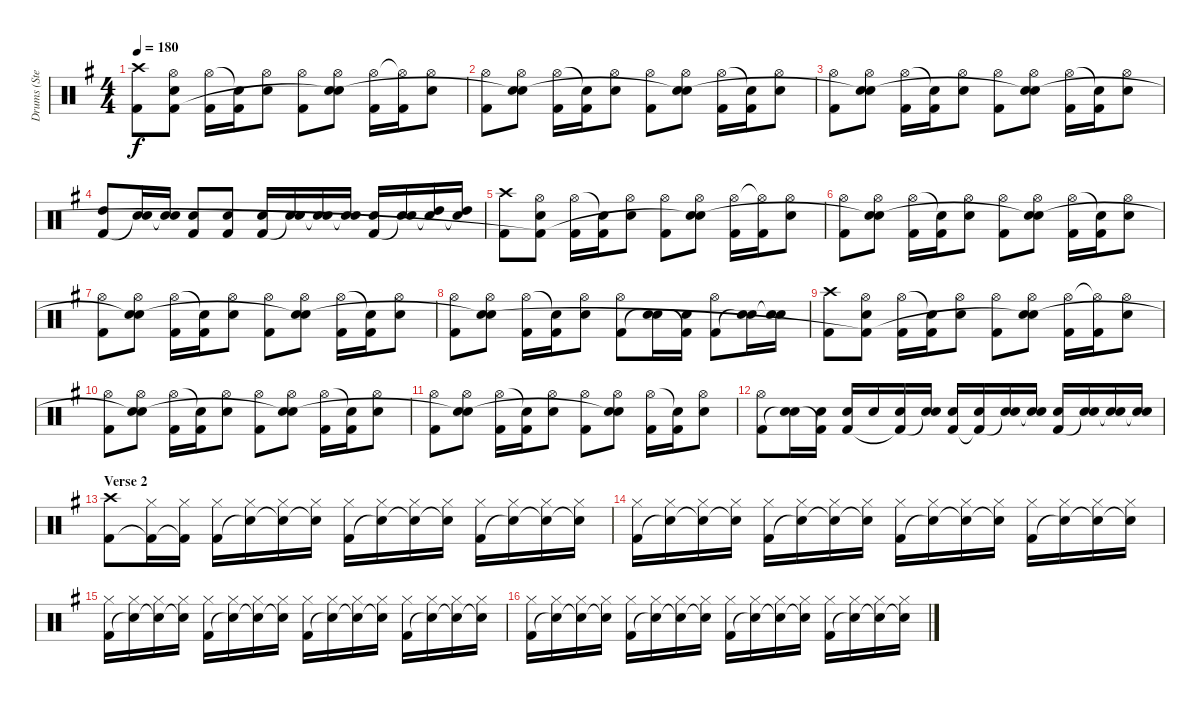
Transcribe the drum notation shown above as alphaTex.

\track ("Drums (Stevo)" "Drums (Ste") {instrument percussion}
\staff {score}
\articulation defaults
\ts (4 4)
\tempo 180
\clef neutral
\ks g
("Crash high (hit)" "Kick (hit) 2").8{dy f} ("Hi-Hat (open)" "Snare (hit) 2" "Kick (hit) 2"{t}).8 ("Hi-Hat (open)" "Kick (hit) 2").16 ("Snare (hit)"{t} "Kick (hit) 2").16 ("Hi-Hat (open)" "Snare (hit) 2").8 ("Hi-Hat (open)" "Kick (hit) 2").8 ("Hi-Hat (open)" "Snare (hit) 2" "Snare (hit)"{t}).8 ("Hi-Hat (open)" "Kick (hit) 2").16 ("Hi-Hat (open)"{t} "Kick (hit) 2").16 ("Hi-Hat (open)" "Snare (hit) 2").8 |
("Hi-Hat (open)" "Kick (hit) 2").8 ("Hi-Hat (open)" "Snare (hit) 2" "Snare (hit)"{t}).8 ("Hi-Hat (open)" "Kick (hit) 2").16 ("Snare (hit)"{t} "Kick (hit) 2").16 ("Hi-Hat (open)" "Snare (hit) 2").8 ("Hi-Hat (open)" "Kick (hit) 2").8 ("Hi-Hat (open)" "Snare (hit) 2" "Snare (hit)"{t}).8 ("Hi-Hat (open)" "Kick (hit) 2").16 ("Snare (hit)"{t} "Kick (hit) 2").16 ("Hi-Hat (open)" "Snare (hit) 2").8 |
("Hi-Hat (open)" "Kick (hit) 2").8 ("Hi-Hat (open)" "Snare (hit) 2" "Snare (hit)"{t}).8 ("Hi-Hat (open)" "Kick (hit) 2").16 ("Snare (hit)"{t} "Kick (hit) 2").16 ("Hi-Hat (open)" "Snare (hit) 2").8 ("Hi-Hat (open)" "Kick (hit) 2").8 ("Hi-Hat (open)" "Snare (hit) 2" "Snare (hit)"{t}).8 ("Hi-Hat (open)" "Kick (hit) 2").16 ("Snare (hit)"{t} "Kick (hit) 2").16 ("Hi-Hat (open)" "Snare (hit) 2").8 |
("High Tom (hit)" "Kick (hit) 2").8 ("Snare (hit) 2" "Snare (hit)"{t}).16 ("Snare (hit) 2" "Snare (hit)"{t}).16 ("Snare (hit) 2" "Kick (hit) 2").8 ("Snare (hit) 2" "Kick (hit) 2").8 ("Snare (hit) 2" "Kick (hit) 2").16 ("Snare (hit) 2" "Snare (hit)"{t}).16 ("Snare (hit) 2" "Snare (hit)"{t}).16 ("Snare (hit) 2" "Snare (hit)"{t}).16 ("Snare (hit) 2" "Kick (hit) 2").16 ("Snare (hit) 2" "Snare (hit)"{t}).16 ("High Tom (hit)" "Snare (hit)"{t}).16 ("High Tom (hit)" "Snare (hit)"{t}).16 |
("Crash high (hit)" "Kick (hit) 2").8 ("Hi-Hat (open)" "Snare (hit) 2" "Kick (hit) 2"{t}).8 ("Hi-Hat (open)" "Kick (hit) 2").16 ("Snare (hit)"{t} "Kick (hit) 2").16 ("Hi-Hat (open)" "Snare (hit) 2").8 ("Hi-Hat (open)" "Kick (hit) 2").8 ("Hi-Hat (open)" "Snare (hit) 2" "Snare (hit)"{t}).8 ("Hi-Hat (open)" "Kick (hit) 2").16 ("Hi-Hat (open)"{t} "Kick (hit) 2").16 ("Hi-Hat (open)" "Snare (hit) 2").8 |
("Hi-Hat (open)" "Kick (hit) 2").8 ("Hi-Hat (open)" "Snare (hit) 2" "Snare (hit)"{t}).8 ("Hi-Hat (open)" "Kick (hit) 2").16 ("Snare (hit)"{t} "Kick (hit) 2").16 ("Hi-Hat (open)" "Snare (hit) 2").8 ("Hi-Hat (open)" "Kick (hit) 2").8 ("Hi-Hat (open)" "Snare (hit) 2" "Snare (hit)"{t}).8 ("Hi-Hat (open)" "Kick (hit) 2").16 ("Snare (hit)"{t} "Kick (hit) 2").16 ("Hi-Hat (open)" "Snare (hit) 2").8 |
("Hi-Hat (open)" "Kick (hit) 2").8 ("Hi-Hat (open)" "Snare (hit) 2" "Snare (hit)"{t}).8 ("Hi-Hat (open)" "Kick (hit) 2").16 ("Snare (hit)"{t} "Kick (hit) 2").16 ("Hi-Hat (open)" "Snare (hit) 2").8 ("Hi-Hat (open)" "Kick (hit) 2").8 ("Hi-Hat (open)" "Snare (hit) 2" "Snare (hit)"{t}).8 ("Hi-Hat (open)" "Kick (hit) 2").16 ("Snare (hit)"{t} "Kick (hit) 2").16 ("Hi-Hat (open)" "Snare (hit) 2").8 |
("Hi-Hat (open)" "Kick (hit) 2").8 ("Hi-Hat (open)" "Snare (hit) 2" "Snare (hit)"{t}).8 ("Hi-Hat (open)" "Kick (hit) 2").16 ("Snare (hit)"{t} "Kick (hit) 2").16 ("Hi-Hat (open)" "Snare (hit) 2").8 ("Hi-Hat (open)" "Kick (hit) 2").8 ("Snare (hit) 2" "Snare (hit)"{t}).16 ("Snare (hit) 2" "Kick (hit) 2"{t}).16 ("Hi-Hat (open)" "Kick (hit) 2").8 ("Snare (hit) 2" "Snare (hit)"{t}).16 ("Snare (hit) 2" "Snare (hit)"{t}).16 |
("Crash high (hit)" "Kick (hit) 2").8 ("Hi-Hat (open)" "Snare (hit) 2" "Kick (hit) 2"{t}).8 ("Hi-Hat (open)" "Kick (hit) 2").16 ("Snare (hit)"{t} "Kick (hit) 2").16 ("Hi-Hat (open)" "Snare (hit) 2").8 ("Hi-Hat (open)" "Kick (hit) 2").8 ("Hi-Hat (open)" "Snare (hit) 2" "Snare (hit)"{t}).8 ("Hi-Hat (open)" "Kick (hit) 2").16 ("Hi-Hat (open)"{t} "Kick (hit) 2").16 ("Hi-Hat (open)" "Snare (hit) 2").8 |
("Hi-Hat (open)" "Kick (hit) 2").8 ("Hi-Hat (open)" "Snare (hit) 2" "Snare (hit)"{t}).8 ("Hi-Hat (open)" "Kick (hit) 2").16 ("Snare (hit)"{t} "Kick (hit) 2").16 ("Hi-Hat (open)" "Snare (hit) 2").8 ("Hi-Hat (open)" "Kick (hit) 2").8 ("Hi-Hat (open)" "Snare (hit) 2" "Snare (hit)"{t}).8 ("Hi-Hat (open)" "Kick (hit) 2").16 ("Snare (hit)"{t} "Kick (hit) 2").16 ("Hi-Hat (open)" "Snare (hit) 2").8 |
("Hi-Hat (open)" "Kick (hit) 2").8 ("Hi-Hat (open)" "Snare (hit) 2" "Snare (hit)"{t}).8 ("Hi-Hat (open)" "Kick (hit) 2").16 ("Snare (hit)"{t} "Kick (hit) 2").16 ("Hi-Hat (open)" "Snare (hit) 2").8 ("Hi-Hat (open)" "Kick (hit) 2").8 ("Hi-Hat (open)" "Snare (hit) 2" "Snare (hit)"{t}).8 ("Hi-Hat (open)" "Kick (hit) 2").16 ("Snare (hit)"{t} "Kick (hit) 2").16 ("Hi-Hat (open)" "Snare (hit) 2").8 |
("Hi-Hat (open)" "Kick (hit) 2").8 ("Snare (hit) 2" "Snare (hit)"{t}).16 ("Snare (hit) 2" "Kick (hit) 2"{t}).16 ("Snare (hit) 2" "Kick (hit) 2").16 "Snare (hit) 2".16 ("Snare (hit) 2" "Kick (hit) 2"{t}).16 ("Snare (hit) 2" "Snare (hit)"{t}).16 ("Snare (hit) 2" "Kick (hit) 2").16 ("Snare (hit) 2" "Kick (hit) 2"{t}).16 ("Snare (hit) 2" "Snare (hit)"{t}).16 ("Snare (hit) 2" "Snare (hit)"{t}).16 ("Snare (hit) 2" "Kick (hit) 2").16 ("Snare (hit) 2" "Snare (hit)"{t}).16 ("Snare (hit) 2" "Snare (hit)"{t}).16 ("Snare (hit) 2" "Snare (hit)"{t}).16 |
\section ("" "Verse 2")
("Crash high (hit)" "Kick (hit) 2").8 ("Hi-Hat (closed)" "Kick (hit) 2"{t}).16 ("Hi-Hat (closed)" "Kick (hit) 2"{t}).16 ("Hi-Hat (closed)" "Kick (hit) 2").16 ("Hi-Hat (closed)" "Snare (hit)"{t}).16 ("Hi-Hat (closed)" "Snare (hit)"{t}).16 ("Hi-Hat (closed)" "Snare (hit)"{t}).16 ("Hi-Hat (closed)" "Kick (hit) 2").16 ("Hi-Hat (closed)" "Snare (hit)"{t}).16 ("Hi-Hat (closed)" "Snare (hit)"{t}).16 ("Hi-Hat (closed)" "Snare (hit)"{t}).16 ("Hi-Hat (closed)" "Kick (hit) 2").16 ("Hi-Hat (closed)" "Snare (hit)"{t}).16 ("Hi-Hat (closed)" "Snare (hit)"{t}).16 ("Hi-Hat (closed)" "Snare (hit)"{t}).16 |
("Hi-Hat (closed)" "Kick (hit) 2").16 ("Hi-Hat (closed)" "Snare (hit)"{t}).16 ("Hi-Hat (closed)" "Snare (hit)"{t}).16 ("Hi-Hat (closed)" "Snare (hit)"{t}).16 ("Hi-Hat (closed)" "Kick (hit) 2").16 ("Hi-Hat (closed)" "Snare (hit)"{t}).16 ("Hi-Hat (closed)" "Snare (hit)"{t}).16 ("Hi-Hat (closed)" "Snare (hit)"{t}).16 ("Hi-Hat (closed)" "Kick (hit) 2").16 ("Hi-Hat (closed)" "Snare (hit)"{t}).16 ("Hi-Hat (closed)" "Snare (hit)"{t}).16 ("Hi-Hat (closed)" "Snare (hit)"{t}).16 ("Hi-Hat (closed)" "Kick (hit) 2").16 ("Hi-Hat (closed)" "Snare (hit)"{t}).16 ("Hi-Hat (closed)" "Snare (hit)"{t}).16 ("Hi-Hat (closed)" "Snare (hit)"{t}).16 |
("Hi-Hat (closed)" "Kick (hit) 2").16 ("Hi-Hat (closed)" "Snare (hit)"{t}).16 ("Hi-Hat (closed)" "Snare (hit)"{t}).16 ("Hi-Hat (closed)" "Snare (hit)"{t}).16 ("Hi-Hat (closed)" "Kick (hit) 2").16 ("Hi-Hat (closed)" "Snare (hit)"{t}).16 ("Hi-Hat (closed)" "Snare (hit)"{t}).16 ("Hi-Hat (closed)" "Snare (hit)"{t}).16 ("Hi-Hat (closed)" "Kick (hit) 2").16 ("Hi-Hat (closed)" "Snare (hit)"{t}).16 ("Hi-Hat (closed)" "Snare (hit)"{t}).16 ("Hi-Hat (closed)" "Snare (hit)"{t}).16 ("Hi-Hat (closed)" "Kick (hit) 2").16 ("Hi-Hat (closed)" "Snare (hit)"{t}).16 ("Hi-Hat (closed)" "Snare (hit)"{t}).16 ("Hi-Hat (closed)" "Snare (hit)"{t}).16 |
("Hi-Hat (closed)" "Kick (hit) 2").16 ("Hi-Hat (closed)" "Snare (hit)"{t}).16 ("Hi-Hat (closed)" "Snare (hit)"{t}).16 ("Hi-Hat (closed)" "Snare (hit)"{t}).16 ("Hi-Hat (closed)" "Kick (hit) 2").16 ("Hi-Hat (closed)" "Snare (hit)"{t}).16 ("Hi-Hat (closed)" "Snare (hit)"{t}).16 ("Hi-Hat (closed)" "Snare (hit)"{t}).16 ("Hi-Hat (closed)" "Kick (hit) 2").16 ("Hi-Hat (closed)" "Snare (hit)"{t}).16 ("Hi-Hat (closed)" "Snare (hit)"{t}).16 ("Hi-Hat (closed)" "Snare (hit)"{t}).16 ("Hi-Hat (closed)" "Kick (hit) 2").16 ("Hi-Hat (closed)" "Snare (hit)"{t}).16 ("Hi-Hat (closed)" "Snare (hit)"{t}).16 ("Hi-Hat (closed)" "Snare (hit)"{t}).16
